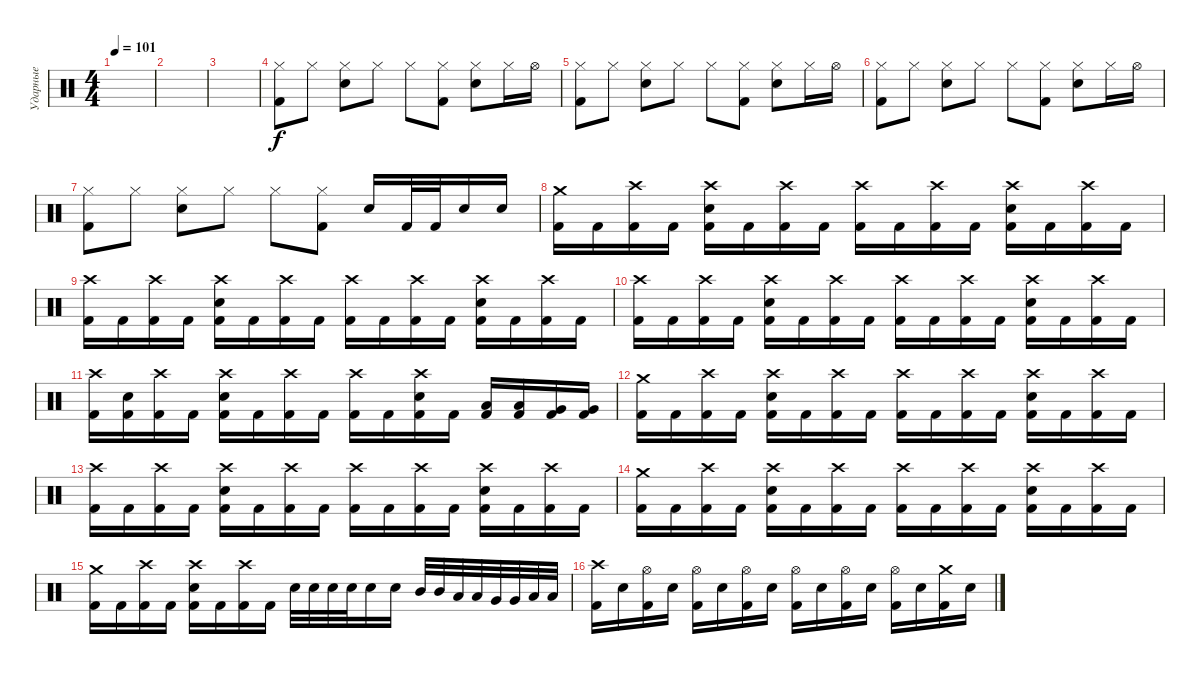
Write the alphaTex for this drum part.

\track ("Ударные" "Ударные") {instrument percussion}
\staff {score}
\articulation defaults
\ts (4 4)
\tempo 101
\clef neutral
\ks c
|
|
|
("Hi-Hat (closed)" "Kick (hit) 2").8 "Hi-Hat (closed)".8 ("Electric Snare (hit)" "Hi-Hat (closed)").8 "Hi-Hat (closed)".8 "Hi-Hat (closed)".8 ("Hi-Hat (closed)" "Kick (hit) 2").8 ("Electric Snare (hit)" "Hi-Hat (closed)").8 "Hi-Hat (closed)".16 "Hi-Hat (open)".16 |
("Hi-Hat (closed)" "Kick (hit) 2").8 "Hi-Hat (closed)".8 ("Electric Snare (hit)" "Hi-Hat (closed)").8 "Hi-Hat (closed)".8 "Hi-Hat (closed)".8 ("Hi-Hat (closed)" "Kick (hit) 2").8 ("Electric Snare (hit)" "Hi-Hat (closed)").8 "Hi-Hat (closed)".16 "Hi-Hat (open)".16 |
("Hi-Hat (closed)" "Kick (hit) 2").8 "Hi-Hat (closed)".8 ("Electric Snare (hit)" "Hi-Hat (closed)").8 "Hi-Hat (closed)".8 "Hi-Hat (closed)".8 ("Hi-Hat (closed)" "Kick (hit) 2").8 ("Electric Snare (hit)" "Hi-Hat (closed)").8 "Hi-Hat (closed)".16 "Hi-Hat (open)".16 |
("Hi-Hat (closed)" "Kick (hit) 2").8 "Hi-Hat (closed)".8 ("Electric Snare (hit)" "Hi-Hat (closed)").8 "Hi-Hat (closed)".8 "Hi-Hat (closed)".8 ("Hi-Hat (closed)" "Kick (hit) 2").8 "Electric Snare (hit)".16 "Kick (hit) 2".32 "Kick (hit) 2".32 "Electric Snare (hit)".16 "Electric Snare (hit)".16 |
("Crash medium (hit)" "Kick (hit) 2").16 "Kick (hit) 2".16 ("Crash high (hit)" "Kick (hit) 2").16 "Kick (hit) 2".16 ("Crash high (hit)" "Electric Snare (hit)" "Kick (hit) 2").16 "Kick (hit) 2".16 ("Crash high (hit)" "Kick (hit) 2").16 "Kick (hit) 2".16 ("Crash high (hit)" "Kick (hit) 2").16 "Kick (hit) 2".16 ("Crash high (hit)" "Kick (hit) 2").16 "Kick (hit) 2".16 ("Crash high (hit)" "Electric Snare (hit)" "Kick (hit) 2").16 "Kick (hit) 2".16 ("Crash high (hit)" "Kick (hit) 2").16 "Kick (hit) 2".16 |
("Crash high (hit)" "Kick (hit) 2").16 "Kick (hit) 2".16 ("Crash high (hit)" "Kick (hit) 2").16 "Kick (hit) 2".16 ("Crash high (hit)" "Electric Snare (hit)" "Kick (hit) 2").16 "Kick (hit) 2".16 ("Crash high (hit)" "Kick (hit) 2").16 "Kick (hit) 2".16 ("Crash high (hit)" "Kick (hit) 2").16 "Kick (hit) 2".16 ("Crash high (hit)" "Kick (hit) 2").16 "Kick (hit) 2".16 ("Crash high (hit)" "Electric Snare (hit)" "Kick (hit) 2").16 "Kick (hit) 2".16 ("Crash high (hit)" "Kick (hit) 2").16 "Kick (hit) 2".16 |
("Crash high (hit)" "Kick (hit) 2").16 "Kick (hit) 2".16 ("Crash high (hit)" "Kick (hit) 2").16 "Kick (hit) 2".16 ("Crash high (hit)" "Electric Snare (hit)" "Kick (hit) 2").16 "Kick (hit) 2".16 ("Crash high (hit)" "Kick (hit) 2").16 "Kick (hit) 2".16 ("Crash high (hit)" "Kick (hit) 2").16 "Kick (hit) 2".16 ("Crash high (hit)" "Kick (hit) 2").16 "Kick (hit) 2".16 ("Crash high (hit)" "Electric Snare (hit)" "Kick (hit) 2").16 "Kick (hit) 2".16 ("Crash high (hit)" "Kick (hit) 2").16 "Kick (hit) 2".16 |
("Crash high (hit)" "Kick (hit) 2").16 ("Electric Snare (hit)" "Kick (hit) 2").16 ("Crash high (hit)" "Kick (hit) 2").16 "Kick (hit) 2".16 ("Crash high (hit)" "Electric Snare (hit)" "Kick (hit) 2").16 "Kick (hit) 2".16 ("Crash high (hit)" "Kick (hit) 2").16 "Kick (hit) 2".16 ("Crash high (hit)" "Kick (hit) 2").16 "Kick (hit) 2".16 ("Crash high (hit)" "Electric Snare (hit)" "Kick (hit) 2").16 "Kick (hit) 2".16 ("Low Tom (hit)" "Kick (hit) 2").16 ("Low Tom (hit)" "Kick (hit) 2").16 ("Very Low Tom (hit)" "Kick (hit) 2").16 ("Very Low Tom (hit)" "Kick (hit) 2").16 |
("Crash medium (hit)" "Kick (hit) 2").16 "Kick (hit) 2".16 ("Crash high (hit)" "Kick (hit) 2").16 "Kick (hit) 2".16 ("Crash high (hit)" "Electric Snare (hit)" "Kick (hit) 2").16 "Kick (hit) 2".16 ("Crash high (hit)" "Kick (hit) 2").16 "Kick (hit) 2".16 ("Crash high (hit)" "Kick (hit) 2").16 "Kick (hit) 2".16 ("Crash high (hit)" "Kick (hit) 2").16 "Kick (hit) 2".16 ("Crash high (hit)" "Electric Snare (hit)" "Kick (hit) 2").16 "Kick (hit) 2".16 ("Crash high (hit)" "Kick (hit) 2").16 "Kick (hit) 2".16 |
("Crash high (hit)" "Kick (hit) 2").16 "Kick (hit) 2".16 ("Crash high (hit)" "Kick (hit) 2").16 "Kick (hit) 2".16 ("Crash high (hit)" "Electric Snare (hit)" "Kick (hit) 2").16 "Kick (hit) 2".16 ("Crash high (hit)" "Kick (hit) 2").16 "Kick (hit) 2".16 ("Crash high (hit)" "Kick (hit) 2").16 "Kick (hit) 2".16 ("Crash high (hit)" "Kick (hit) 2").16 "Kick (hit) 2".16 ("Crash high (hit)" "Electric Snare (hit)" "Kick (hit) 2").16 "Kick (hit) 2".16 ("Crash high (hit)" "Kick (hit) 2").16 "Kick (hit) 2".16 |
("Crash medium (hit)" "Kick (hit) 2").16 "Kick (hit) 2".16 ("Crash high (hit)" "Kick (hit) 2").16 "Kick (hit) 2".16 ("Crash high (hit)" "Electric Snare (hit)" "Kick (hit) 2").16 "Kick (hit) 2".16 ("Crash high (hit)" "Kick (hit) 2").16 "Kick (hit) 2".16 ("Crash high (hit)" "Kick (hit) 2").16 "Kick (hit) 2".16 ("Crash high (hit)" "Kick (hit) 2").16 "Kick (hit) 2".16 ("Crash high (hit)" "Electric Snare (hit)" "Kick (hit) 2").16 "Kick (hit) 2".16 ("Crash high (hit)" "Kick (hit) 2").16 "Kick (hit) 2".16 |
("Crash medium (hit)" "Kick (hit) 2").16 "Kick (hit) 2".16 ("Crash high (hit)" "Kick (hit) 2").16 "Kick (hit) 2".16 ("Crash high (hit)" "Electric Snare (hit)" "Kick (hit) 2").16 "Kick (hit) 2".16 ("Crash high (hit)" "Kick (hit) 2").16 "Kick (hit) 2".16 "Electric Snare (hit)".32 "Electric Snare (hit)".32 "Electric Snare (hit)".32 "Electric Snare (hit)".32 "Electric Snare (hit)".16 "Electric Snare (hit)".16 "Mid Tom (hit)".32 "Mid Tom (hit)".32 "Low Tom (hit)".32 "Low Tom (hit)".32 "Very Low Tom (hit)".32 "Very Low Tom (hit)".32 "Low Floor Tom (hit)".32 "Low Floor Tom (hit)".32 |
("Crash high (hit)" "Kick (hit) 2").16 "Electric Snare (hit)".16 ("Hi-Hat (open)" "Kick (hit) 2").16 "Electric Snare (hit)".16 ("Hi-Hat (open)" "Kick (hit) 2").16 "Electric Snare (hit)".16 ("Hi-Hat (open)" "Kick (hit) 2").16 "Electric Snare (hit)".16 ("Hi-Hat (open)" "Kick (hit) 2").16 "Electric Snare (hit)".16 ("Hi-Hat (open)" "Kick (hit) 2").16 "Electric Snare (hit)".16 ("Hi-Hat (open)" "Kick (hit) 2").16 "Electric Snare (hit)".16 ("Crash medium (hit)" "Kick (hit) 2").16 "Electric Snare (hit)".16
